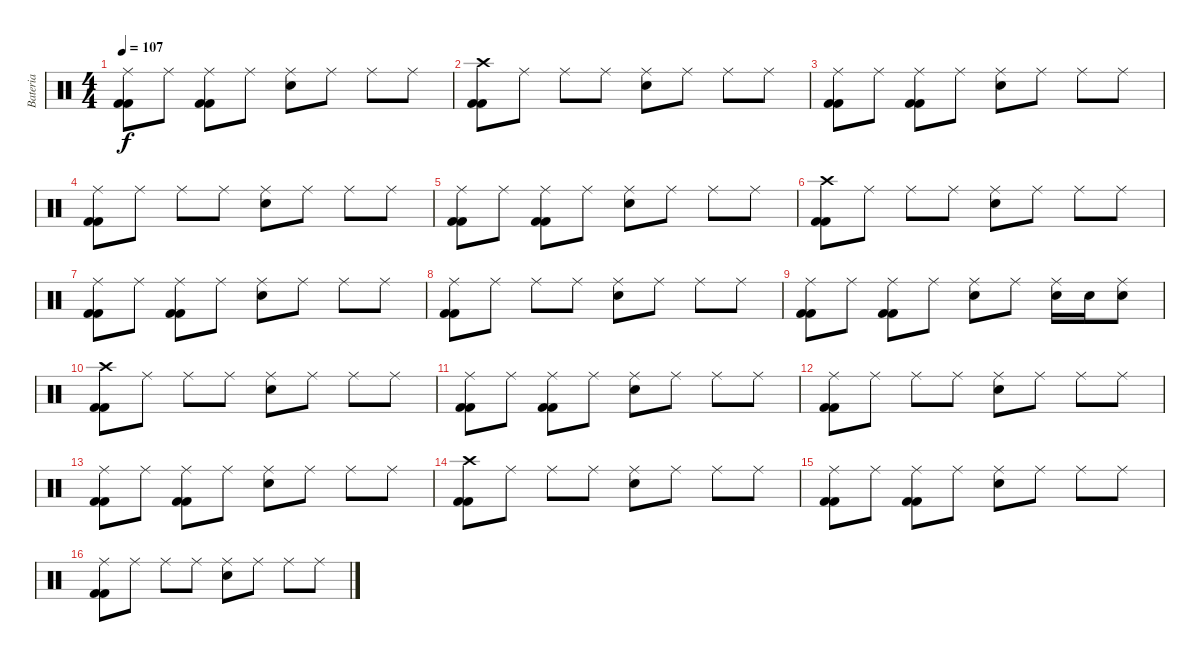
\track ("Bateria" "Bateria") {instrument percussion}
\staff {score}
\articulation defaults
\ts (4 4)
\tempo 107
\clef neutral
\ks c
("Kick (hit) 2" "Kick (hit) 2" "Ride (middle)").8{dy f} "Ride (middle)".8 ("Kick (hit) 2" "Kick (hit) 2" "Ride (middle)").8 "Ride (middle)".8 ("Snare (hit) 2" "Ride (middle)").8 "Ride (middle)".8 "Ride (middle)".8 "Ride (middle)".8 |
("Kick (hit) 2" "Kick (hit) 2" "Crash high (hit)").8 "Ride (middle)".8 "Ride (middle)".8 "Ride (middle)".8 ("Snare (hit) 2" "Ride (middle)").8 "Ride (middle)".8 "Ride (middle)".8 "Ride (middle)".8 |
("Kick (hit) 2" "Kick (hit) 2" "Ride (middle)").8 "Ride (middle)".8 ("Kick (hit) 2" "Kick (hit) 2" "Ride (middle)").8 "Ride (middle)".8 ("Snare (hit) 2" "Ride (middle)").8 "Ride (middle)".8 "Ride (middle)".8 "Ride (middle)".8 |
("Kick (hit) 2" "Kick (hit) 2" "Ride (middle)").8 "Ride (middle)".8 "Ride (middle)".8 "Ride (middle)".8 ("Snare (hit) 2" "Ride (middle)").8 "Ride (middle)".8 "Ride (middle)".8 "Ride (middle)".8 |
("Kick (hit) 2" "Kick (hit) 2" "Ride (middle)").8 "Ride (middle)".8 ("Kick (hit) 2" "Kick (hit) 2" "Ride (middle)").8 "Ride (middle)".8 ("Snare (hit) 2" "Ride (middle)").8 "Ride (middle)".8 "Ride (middle)".8 "Ride (middle)".8 |
("Kick (hit) 2" "Kick (hit) 2" "Crash high (hit)").8 "Ride (middle)".8 "Ride (middle)".8 "Ride (middle)".8 ("Snare (hit) 2" "Ride (middle)").8 "Ride (middle)".8 "Ride (middle)".8 "Ride (middle)".8 |
("Kick (hit) 2" "Kick (hit) 2" "Ride (middle)").8 "Ride (middle)".8 ("Kick (hit) 2" "Kick (hit) 2" "Ride (middle)").8 "Ride (middle)".8 ("Snare (hit) 2" "Ride (middle)").8 "Ride (middle)".8 "Ride (middle)".8 "Ride (middle)".8 |
("Kick (hit) 2" "Kick (hit) 2" "Ride (middle)").8 "Ride (middle)".8 "Ride (middle)".8 "Ride (middle)".8 ("Snare (hit) 2" "Ride (middle)").8 "Ride (middle)".8 "Ride (middle)".8 "Ride (middle)".8 |
("Kick (hit) 2" "Kick (hit) 2" "Ride (middle)").8 "Ride (middle)".8 ("Kick (hit) 2" "Kick (hit) 2" "Ride (middle)").8 "Ride (middle)".8 ("Snare (hit) 2" "Ride (middle)").8 "Ride (middle)".8 ("Snare (hit) 2" "Ride (middle)").16 "Snare (hit) 2".16 ("Snare (hit) 2" "Ride (middle)").8 |
("Kick (hit) 2" "Kick (hit) 2" "Crash high (hit)").8 "Ride (middle)".8 "Ride (middle)".8 "Ride (middle)".8 ("Snare (hit) 2" "Ride (middle)").8 "Ride (middle)".8 "Ride (middle)".8 "Ride (middle)".8 |
("Kick (hit) 2" "Kick (hit) 2" "Ride (middle)").8 "Ride (middle)".8 ("Kick (hit) 2" "Kick (hit) 2" "Ride (middle)").8 "Ride (middle)".8 ("Snare (hit) 2" "Ride (middle)").8 "Ride (middle)".8 "Ride (middle)".8 "Ride (middle)".8 |
("Kick (hit) 2" "Kick (hit) 2" "Ride (middle)").8 "Ride (middle)".8 "Ride (middle)".8 "Ride (middle)".8 ("Snare (hit) 2" "Ride (middle)").8 "Ride (middle)".8 "Ride (middle)".8 "Ride (middle)".8 |
("Kick (hit) 2" "Kick (hit) 2" "Ride (middle)").8 "Ride (middle)".8 ("Kick (hit) 2" "Kick (hit) 2" "Ride (middle)").8 "Ride (middle)".8 ("Snare (hit) 2" "Ride (middle)").8 "Ride (middle)".8 "Ride (middle)".8 "Ride (middle)".8 |
("Kick (hit) 2" "Kick (hit) 2" "Crash high (hit)").8 "Ride (middle)".8 "Ride (middle)".8 "Ride (middle)".8 ("Snare (hit) 2" "Ride (middle)").8 "Ride (middle)".8 "Ride (middle)".8 "Ride (middle)".8 |
("Kick (hit) 2" "Kick (hit) 2" "Ride (middle)").8 "Ride (middle)".8 ("Kick (hit) 2" "Kick (hit) 2" "Ride (middle)").8 "Ride (middle)".8 ("Snare (hit) 2" "Ride (middle)").8 "Ride (middle)".8 "Ride (middle)".8 "Ride (middle)".8 |
("Kick (hit) 2" "Kick (hit) 2" "Ride (middle)").8 "Ride (middle)".8 "Ride (middle)".8 "Ride (middle)".8 ("Snare (hit) 2" "Ride (middle)").8 "Ride (middle)".8 "Ride (middle)".8 "Ride (middle)".8
